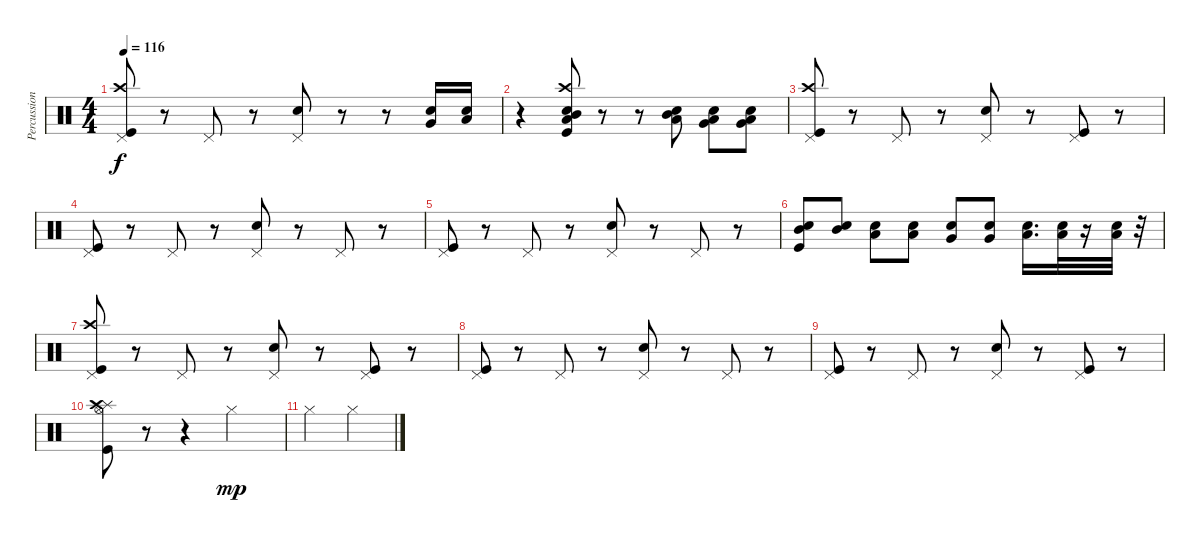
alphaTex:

\track ("Percussion" "Percussion") {instrument percussion}
\staff {score}
\articulation defaults
\ts (4 4)
\tempo 116
\clef neutral
\ks c
("Kick (hit)" "Crash high (hit)" "Pedal Hi-Hat (hit)").8{dy f} r.8 "Pedal Hi-Hat (hit)".8 r.8 ("Snare (hit) 2" "Pedal Hi-Hat (hit)").8 r.8 r.8 ("Snare (hit) 2" "Very Low Tom (hit)").16 ("Snare (hit) 2" "Low Floor Tom (hit)").16 |
r.4 ("Snare (hit) 2" "Kick (hit)" "Crash high (hit)" "Mid Tom (hit)" "Low Tom (hit)").8 r.8 r.8 ("Snare (hit) 2" "Mid Tom (hit)" "Low Tom (hit)").8 ("Snare (hit) 2" "Low Tom (hit)" "Very Low Tom (hit)").8 ("Snare (hit) 2" "Low Floor Tom (hit)" "Very Low Tom (hit)").8 |
("Kick (hit)" "Crash high (hit)" "Pedal Hi-Hat (hit)").8 r.8 "Pedal Hi-Hat (hit)".8 r.8 ("Snare (hit) 2" "Pedal Hi-Hat (hit)").8 r.8 ("Kick (hit)" "Pedal Hi-Hat (hit)").8 r.8 |
("Kick (hit)" "Pedal Hi-Hat (hit)").8 r.8 "Pedal Hi-Hat (hit)".8 r.8 ("Snare (hit) 2" "Pedal Hi-Hat (hit)").8 r.8 "Pedal Hi-Hat (hit)".8 r.8 |
("Kick (hit)" "Pedal Hi-Hat (hit)").8 r.8 "Pedal Hi-Hat (hit)".8 r.8 ("Snare (hit) 2" "Pedal Hi-Hat (hit)").8 r.8 "Pedal Hi-Hat (hit)".8 r.8 |
("Kick (hit)" "Snare (hit) 2" "Mid Tom (hit)").8 ("Snare (hit) 2" "Mid Tom (hit)").8 ("Snare (hit) 2" "Low Tom (hit)").8 ("Snare (hit) 2" "Low Tom (hit)").8 ("Snare (hit) 2" "Very Low Tom (hit)").8 ("Snare (hit) 2" "Very Low Tom (hit)").8 ("Low Floor Tom (hit)" "Snare (hit) 2").16{d} ("Snare (hit) 2" "Low Floor Tom (hit)").32 r.16 ("Snare (hit) 2" "Low Floor Tom (hit)").32 r.32 |
("Kick (hit)" "Crash high (hit)" "Pedal Hi-Hat (hit)").8 r.8 "Pedal Hi-Hat (hit)".8 r.8 ("Snare (hit) 2" "Pedal Hi-Hat (hit)").8 r.8 ("Kick (hit)" "Pedal Hi-Hat (hit)").8 r.8 |
("Kick (hit)" "Pedal Hi-Hat (hit)").8 r.8 "Pedal Hi-Hat (hit)".8 r.8 ("Snare (hit) 2" "Pedal Hi-Hat (hit)").8 r.8 "Pedal Hi-Hat (hit)".8 r.8 |
("Kick (hit)" "Pedal Hi-Hat (hit)").8 r.8 "Pedal Hi-Hat (hit)".8 r.8 ("Snare (hit) 2" "Pedal Hi-Hat (hit)").8 r.8 ("Kick (hit)" "Pedal Hi-Hat (hit)").8 r.8 |
("Kick (hit)" "Splash (hit)" "Hi-Hat (open)" "Crash high (hit)").8 r.8 r.4 "Hi-Hat (closed)".2{dy mp} |
"Hi-Hat (closed)".2 "Hi-Hat (closed)".2
